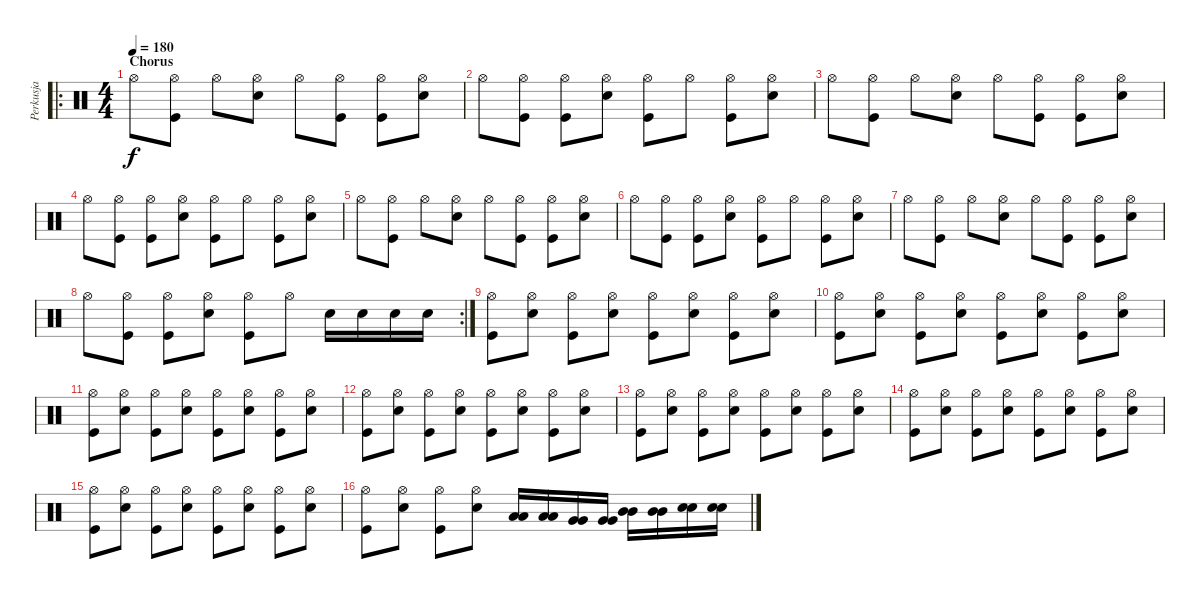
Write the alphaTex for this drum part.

\track ("Perkusja" "Perkusja") {instrument percussion}
\staff {score}
\articulation defaults
\ro
\ts (4 4)
\section ("" "Chorus")
\tempo 180
\clef neutral
\ks c "Hi-Hat (open)".8{dy f}
("Hi-Hat (open)" "Kick (hit)").8 "Hi-Hat (open)".8 ("Hi-Hat (open)" "Electric Snare (hit)").8 "Hi-Hat (open)".8 ("Hi-Hat (open)" "Kick (hit)").8 ("Hi-Hat (open)" "Kick (hit)").8 ("Hi-Hat (open)" "Electric Snare (hit)").8 |
"Hi-Hat (open)".8 ("Hi-Hat (open)" "Kick (hit)").8 ("Hi-Hat (open)" "Kick (hit)").8 ("Hi-Hat (open)" "Electric Snare (hit)").8 ("Hi-Hat (open)" "Kick (hit)").8 "Hi-Hat (open)".8 ("Hi-Hat (open)" "Kick (hit)").8 ("Hi-Hat (open)" "Electric Snare (hit)").8 |
"Hi-Hat (open)".8 ("Hi-Hat (open)" "Kick (hit)").8 "Hi-Hat (open)".8 ("Hi-Hat (open)" "Electric Snare (hit)").8 "Hi-Hat (open)".8 ("Hi-Hat (open)" "Kick (hit)").8 ("Hi-Hat (open)" "Kick (hit)").8 ("Hi-Hat (open)" "Electric Snare (hit)").8 |
"Hi-Hat (open)".8 ("Hi-Hat (open)" "Kick (hit)").8 ("Hi-Hat (open)" "Kick (hit)").8 ("Hi-Hat (open)" "Electric Snare (hit)").8 ("Hi-Hat (open)" "Kick (hit)").8 "Hi-Hat (open)".8 ("Hi-Hat (open)" "Kick (hit)").8 ("Hi-Hat (open)" "Electric Snare (hit)").8 |
"Hi-Hat (open)".8 ("Hi-Hat (open)" "Kick (hit)").8 "Hi-Hat (open)".8 ("Hi-Hat (open)" "Electric Snare (hit)").8 "Hi-Hat (open)".8 ("Hi-Hat (open)" "Kick (hit)").8 ("Hi-Hat (open)" "Kick (hit)").8 ("Hi-Hat (open)" "Electric Snare (hit)").8 |
"Hi-Hat (open)".8 ("Hi-Hat (open)" "Kick (hit)").8 ("Hi-Hat (open)" "Kick (hit)").8 ("Hi-Hat (open)" "Electric Snare (hit)").8 ("Hi-Hat (open)" "Kick (hit)").8 "Hi-Hat (open)".8 ("Hi-Hat (open)" "Kick (hit)").8 ("Hi-Hat (open)" "Electric Snare (hit)").8 |
"Hi-Hat (open)".8 ("Hi-Hat (open)" "Kick (hit)").8 "Hi-Hat (open)".8 ("Hi-Hat (open)" "Electric Snare (hit)").8 "Hi-Hat (open)".8 ("Hi-Hat (open)" "Kick (hit)").8 ("Hi-Hat (open)" "Kick (hit)").8 ("Hi-Hat (open)" "Electric Snare (hit)").8 |
\rc 2 "Hi-Hat (open)".8
("Hi-Hat (open)" "Kick (hit)").8 ("Hi-Hat (open)" "Kick (hit)").8 ("Hi-Hat (open)" "Electric Snare (hit)").8 ("Hi-Hat (open)" "Kick (hit)").8 "Hi-Hat (open)".8 "Electric Snare (hit)".16 "Electric Snare (hit)".16 "Electric Snare (hit)".16 "Electric Snare (hit)".16 |
("Kick (hit)" "Hi-Hat (open)").8 ("Electric Snare (hit)" "Hi-Hat (open)").8 ("Kick (hit)" "Hi-Hat (open)").8 ("Electric Snare (hit)" "Hi-Hat (open)").8 ("Kick (hit)" "Hi-Hat (open)").8 ("Electric Snare (hit)" "Hi-Hat (open)").8 ("Kick (hit)" "Hi-Hat (open)").8 ("Electric Snare (hit)" "Hi-Hat (open)").8 |
("Kick (hit)" "Hi-Hat (open)").8 ("Electric Snare (hit)" "Hi-Hat (open)").8 ("Kick (hit)" "Hi-Hat (open)").8 ("Electric Snare (hit)" "Hi-Hat (open)").8 ("Kick (hit)" "Hi-Hat (open)").8 ("Electric Snare (hit)" "Hi-Hat (open)").8 ("Kick (hit)" "Hi-Hat (open)").8 ("Electric Snare (hit)" "Hi-Hat (open)").8 |
("Kick (hit)" "Hi-Hat (open)").8 ("Electric Snare (hit)" "Hi-Hat (open)").8 ("Kick (hit)" "Hi-Hat (open)").8 ("Electric Snare (hit)" "Hi-Hat (open)").8 ("Kick (hit)" "Hi-Hat (open)").8 ("Electric Snare (hit)" "Hi-Hat (open)").8 ("Kick (hit)" "Hi-Hat (open)").8 ("Electric Snare (hit)" "Hi-Hat (open)").8 |
("Kick (hit)" "Hi-Hat (open)").8 ("Electric Snare (hit)" "Hi-Hat (open)").8 ("Kick (hit)" "Hi-Hat (open)").8 ("Electric Snare (hit)" "Hi-Hat (open)").8 ("Kick (hit)" "Hi-Hat (open)").8 ("Electric Snare (hit)" "Hi-Hat (open)").8 ("Kick (hit)" "Hi-Hat (open)").8 ("Electric Snare (hit)" "Hi-Hat (open)").8 |
("Kick (hit)" "Hi-Hat (open)").8 ("Electric Snare (hit)" "Hi-Hat (open)").8 ("Kick (hit)" "Hi-Hat (open)").8 ("Electric Snare (hit)" "Hi-Hat (open)").8 ("Kick (hit)" "Hi-Hat (open)").8 ("Electric Snare (hit)" "Hi-Hat (open)").8 ("Kick (hit)" "Hi-Hat (open)").8 ("Electric Snare (hit)" "Hi-Hat (open)").8 |
("Kick (hit)" "Hi-Hat (open)").8 ("Electric Snare (hit)" "Hi-Hat (open)").8 ("Kick (hit)" "Hi-Hat (open)").8 ("Electric Snare (hit)" "Hi-Hat (open)").8 ("Kick (hit)" "Hi-Hat (open)").8 ("Electric Snare (hit)" "Hi-Hat (open)").8 ("Kick (hit)" "Hi-Hat (open)").8 ("Electric Snare (hit)" "Hi-Hat (open)").8 |
("Kick (hit)" "Hi-Hat (open)").8 ("Electric Snare (hit)" "Hi-Hat (open)").8 ("Kick (hit)" "Hi-Hat (open)").8 ("Electric Snare (hit)" "Hi-Hat (open)").8 ("Kick (hit)" "Hi-Hat (open)").8 ("Electric Snare (hit)" "Hi-Hat (open)").8 ("Kick (hit)" "Hi-Hat (open)").8 ("Electric Snare (hit)" "Hi-Hat (open)").8 |
("Kick (hit)" "Hi-Hat (open)").8 ("Electric Snare (hit)" "Hi-Hat (open)").8 ("Kick (hit)" "Hi-Hat (open)").8 ("Electric Snare (hit)" "Hi-Hat (open)").8 ("Low Floor Tom (hit)" "Low Floor Tom (hit)").16 ("Low Floor Tom (hit)" "Low Floor Tom (hit)").16 ("Very Low Tom (hit)" "Very Low Tom (hit)").16 ("Very Low Tom (hit)" "Very Low Tom (hit)").16 ("Mid Tom (hit)" "Mid Tom (hit)").16 ("Mid Tom (hit)" "Mid Tom (hit)").16 ("Electric Snare (hit)" "Electric Snare (hit)").16 ("Electric Snare (hit)" "Electric Snare (hit)").16
